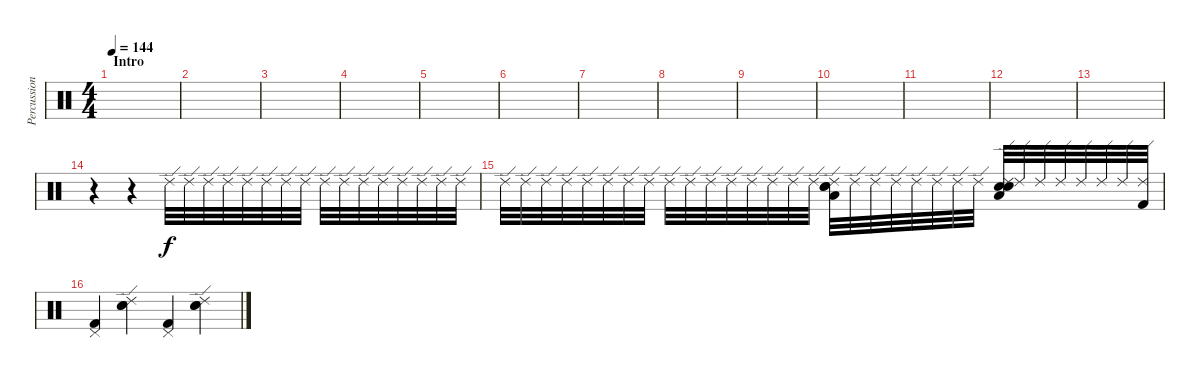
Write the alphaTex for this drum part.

\track ("Percussions" "Percussion") {instrument percussion}
\staff {score}
\articulation defaults
\ts (4 4)
\section ("" "Intro")
\tempo 144
\clef neutral
\ks c
|
|
|
|
|
|
|
|
|
|
|
|
|
r.4 r.4 "Ride (edge) 2".32 "Ride (edge) 2".32 "Ride (edge) 2".32 "Ride (edge) 2".32 "Ride (edge) 2".32 "Ride (edge) 2".32 "Ride (edge) 2".32 "Ride (edge) 2".32 "Ride (edge) 2".32 "Ride (edge) 2".32 "Ride (edge) 2".32 "Ride (edge) 2".32 "Ride (edge) 2".32 "Ride (edge) 2".32 "Ride (edge) 2".32 "Ride (edge) 2".32 |
"Ride (edge) 2".32 "Ride (edge) 2".32 "Ride (edge) 2".32 "Ride (edge) 2".32 "Ride (edge) 2".32 "Ride (edge) 2".32 "Ride (edge) 2".32 "Ride (edge) 2".32 "Ride (edge) 2".32 "Ride (edge) 2".32 "Ride (edge) 2".32 "Ride (edge) 2".32 "Ride (edge) 2".32 "Ride (edge) 2".32 "Ride (edge) 2".32 "Ride (edge) 2".32 ("Ride (edge) 2" "Snare (hit) 2" "Electric Snare (hit)" "Low Tom (hit)").32 "Ride (edge) 2".32 "Ride (edge) 2".32 "Ride (edge) 2".32 "Ride (edge) 2".32 "Ride (edge) 2".32 "Ride (edge) 2".32 "Ride (edge) 2".32 ("Ride (edge) 2" "Snare (hit) 2" "Electric Snare (hit)" "Low Tom (hit)").32 "Ride (edge) 2".32 "Ride (edge) 2".32 "Ride (edge) 2".32 "Ride (edge) 2".32 "Ride (edge) 2".32 "Ride (edge) 2".32 ("Ride (edge) 2" "Kick (hit) 2").32 |
("Kick (hit) 2" "Pedal Hi-Hat (hit)").4 ("Snare (hit) 2" "Electric Snare (hit)" "Ride (edge) 2").4 ("Kick (hit) 2" "Pedal Hi-Hat (hit)").4 ("Snare (hit) 2" "Electric Snare (hit)" "Ride (edge) 2").4
